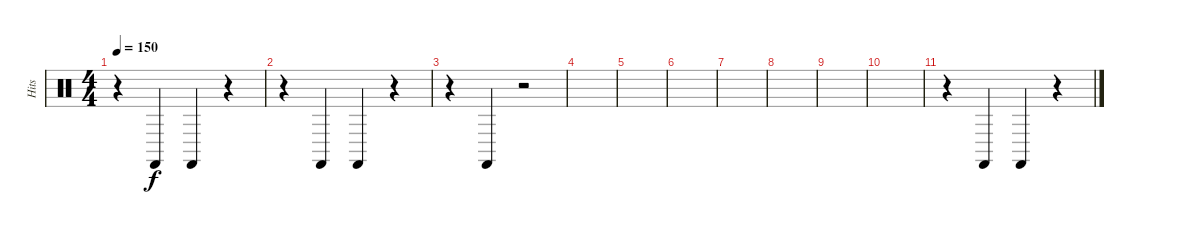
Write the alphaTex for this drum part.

\track ("Hits" "Hits") {instrument percussion}
\staff {score}
\articulation defaults
\ts (4 4)
\tempo 150
\clef neutral
\ks c
r.4{dy f} "Castanets (hit)".4 "Castanets (hit)".4 r.4 |
r.4 "Castanets (hit)".4 "Castanets (hit)".4 r.4 |
r.4 "Castanets (hit)".4 r.2 |
|
|
|
|
|
|
|
r.4 "Castanets (hit)".4 "Castanets (hit)".4 r.4
